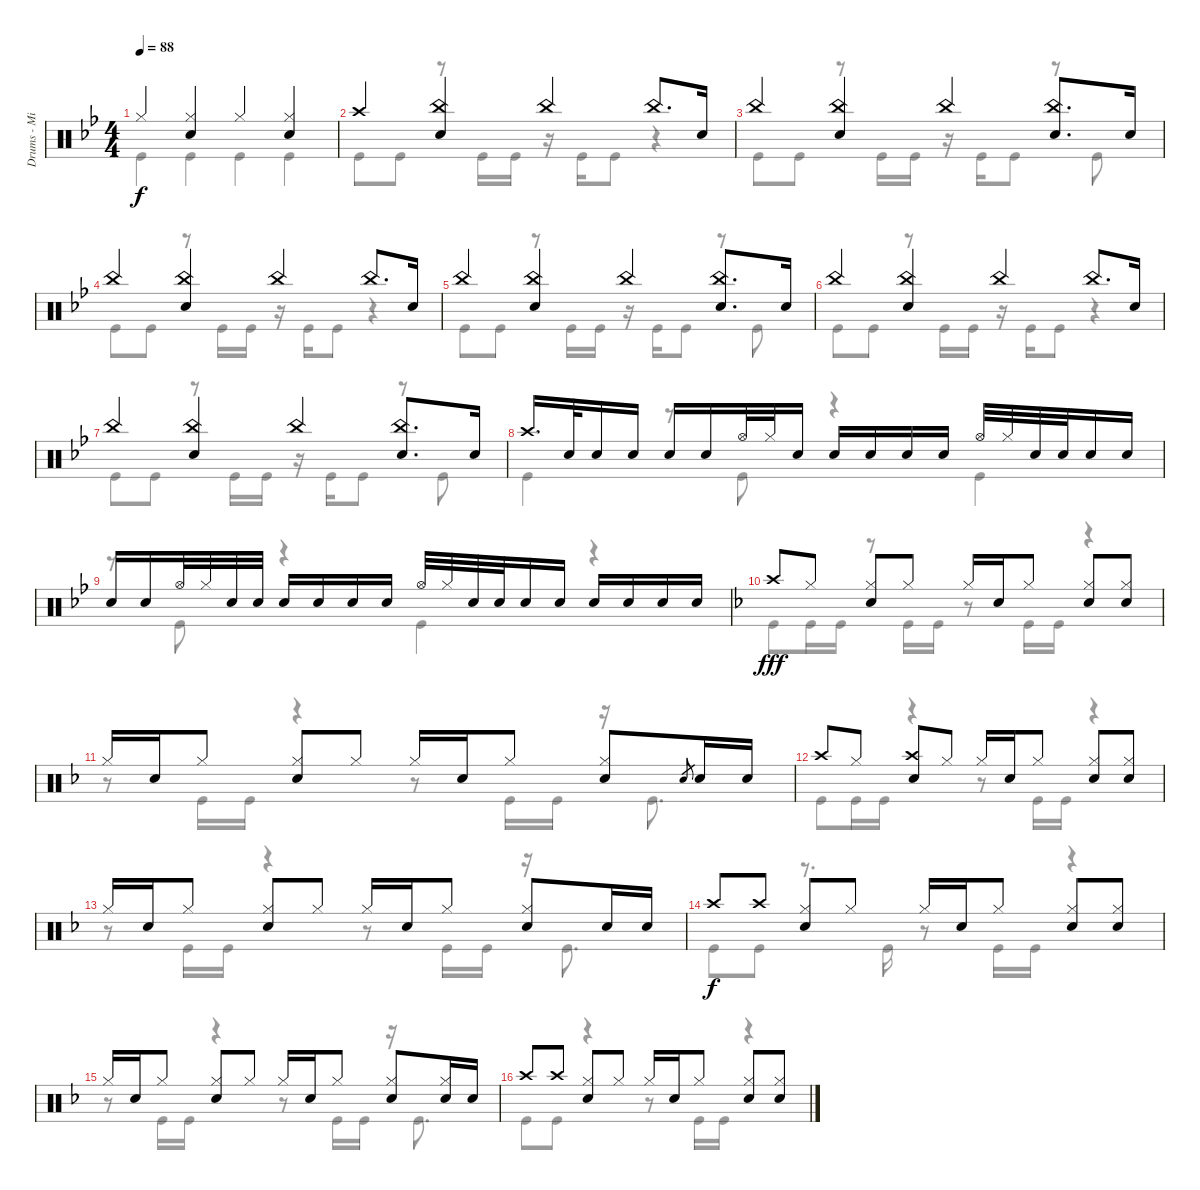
\track ("Drums - Mike Portnoy" "Drums - Mi") {instrument percussion}
\staff {score}
\articulation defaults
\voice
\ts (4 4)
\tempo 88
\clef neutral
\ks bb "Hi-Hat (closed)".4{dy f}
("Hi-Hat (closed)" "Snare (hit) 2").4 "Hi-Hat (closed)".4 ("Hi-Hat (closed)" "Snare (hit) 2").4 |
"Crash high (hit)".4 ("China (hit)" "Snare (hit) 2").4 "China (hit)".4 "China (hit)".8{d} "Snare (hit) 2".16 |
"China (hit)".4 ("China (hit)" "Snare (hit) 2").4 "China (hit)".4 ("China (hit)" "Snare (hit) 2").8{d} "Snare (hit) 2".16 |
"China (hit)".4 ("China (hit)" "Snare (hit) 2").4 "China (hit)".4 "China (hit)".8{d} "Snare (hit) 2".16 |
"China (hit)".4 ("China (hit)" "Snare (hit) 2").4 "China (hit)".4 ("China (hit)" "Snare (hit) 2").8{d} "Snare (hit) 2".16 |
"China (hit)".4 ("China (hit)" "Snare (hit) 2").4 "China (hit)".4 "China (hit)".8{d} "Snare (hit) 2".16 |
"China (hit)".4 ("China (hit)" "Snare (hit) 2").4 "China (hit)".4 ("China (hit)" "Snare (hit) 2").8{d} "Snare (hit) 2".16 |
"Crash high (hit)".16{d} "Snare (hit) 2".32 "Snare (hit) 2".16 "Snare (hit) 2".16 "Snare (hit) 2".16 "Snare (hit) 2".16 "Hi-Hat (open)".32 "Hi-Hat (closed)".32 "Snare (hit) 2".16 "Snare (hit) 2".16 "Snare (hit) 2".16 "Snare (hit) 2".16 "Snare (hit) 2".16 "Hi-Hat (open)".32 "Hi-Hat (closed)".32 "Snare (hit) 2".32 "Snare (hit) 2".32 "Snare (hit) 2".16 "Snare (hit) 2".16 |
"Snare (hit) 2".16 "Snare (hit) 2".16 "Hi-Hat (open)".32 "Hi-Hat (closed)".32 "Snare (hit) 2".32 "Snare (hit) 2".32 "Snare (hit) 2".16 "Snare (hit) 2".16 "Snare (hit) 2".16 "Snare (hit) 2".16 "Hi-Hat (open)".32 "Hi-Hat (closed)".32 "Snare (hit) 2".32 "Snare (hit) 2".32 "Snare (hit) 2".16 "Snare (hit) 2".16 "Snare (hit) 2".16 "Snare (hit) 2".16 "Snare (hit) 2".16 "Snare (hit) 2".16 |
\ks f "Crash high (hit)".8{dy fff} "Hi-Hat (closed)".8
("Hi-Hat (closed)" "Snare (hit) 2").8 "Hi-Hat (closed)".8 "Hi-Hat (closed)".16 "Snare (hit) 2".16 "Hi-Hat (closed)".8 ("Hi-Hat (closed)" "Snare (hit) 2").8 ("Hi-Hat (closed)" "Snare (hit) 2").8 |
"Hi-Hat (closed)".16 "Snare (hit) 2".16 "Hi-Hat (closed)".8 ("Hi-Hat (closed)" "Snare (hit) 2").8 "Hi-Hat (closed)".8 "Hi-Hat (closed)".16 "Snare (hit) 2".16 "Hi-Hat (closed)".8 ("Hi-Hat (closed)" "Snare (hit) 2").8 "Snare (hit) 2".8{gr} "Snare (hit) 2".16 "Snare (hit) 2".16 |
"Crash high (hit)".8 "Hi-Hat (closed)".8 ("Crash high (hit)" "Snare (hit) 2").8 "Hi-Hat (closed)".8 "Hi-Hat (closed)".16 "Snare (hit) 2".16 "Hi-Hat (closed)".8 ("Hi-Hat (closed)" "Snare (hit) 2").8 ("Hi-Hat (closed)" "Snare (hit) 2").8 |
"Hi-Hat (closed)".16 "Snare (hit) 2".16 "Hi-Hat (closed)".8 ("Hi-Hat (closed)" "Snare (hit) 2").8 "Hi-Hat (closed)".8 "Hi-Hat (closed)".16 "Snare (hit) 2".16 "Hi-Hat (closed)".8 ("Hi-Hat (closed)" "Snare (hit) 2").8 "Snare (hit) 2".16 "Snare (hit) 2".16 |
"Crash high (hit)".8{dy f} "Crash high (hit)".8 ("Hi-Hat (closed)" "Snare (hit) 2").8 "Hi-Hat (closed)".8 "Hi-Hat (closed)".16 "Snare (hit) 2".16 "Hi-Hat (closed)".8 ("Hi-Hat (closed)" "Snare (hit) 2").8 ("Hi-Hat (closed)" "Snare (hit) 2").8 |
"Hi-Hat (closed)".16 "Snare (hit) 2".16 "Hi-Hat (closed)".8 ("Hi-Hat (closed)" "Snare (hit) 2").8 "Hi-Hat (closed)".8 "Hi-Hat (closed)".16 "Snare (hit) 2".16 "Hi-Hat (closed)".8 ("Hi-Hat (closed)" "Snare (hit) 2").8 ("Hi-Hat (closed)" "Snare (hit) 2").16 "Snare (hit) 2".16 |
"Crash high (hit)".8 "Crash high (hit)".8 ("Hi-Hat (closed)" "Snare (hit) 2").8 "Hi-Hat (closed)".8 "Hi-Hat (closed)".16 "Snare (hit) 2".16 "Hi-Hat (closed)".8 ("Hi-Hat (closed)" "Snare (hit) 2").8 ("Hi-Hat (closed)" "Snare (hit) 2").8
\voice
\clef neutral
\ottava regular
\simile none
\ks bb "Kick (hit)".4{dy f} "Kick (hit)".4 "Kick (hit)".4 "Kick (hit)".4
|
"Kick (hit)".8 "Kick (hit)".8 r.8 "Kick (hit)".16 "Kick (hit)".16 r.16 "Kick (hit)".16 "Kick (hit)".8 r.4 |
"Kick (hit)".8 "Kick (hit)".8 r.8 "Kick (hit)".16 "Kick (hit)".16 r.16 "Kick (hit)".16 "Kick (hit)".8 r.8 "Kick (hit)".8 |
"Kick (hit)".8 "Kick (hit)".8 r.8 "Kick (hit)".16 "Kick (hit)".16 r.16 "Kick (hit)".16 "Kick (hit)".8 r.4 |
"Kick (hit)".8 "Kick (hit)".8 r.8 "Kick (hit)".16 "Kick (hit)".16 r.16 "Kick (hit)".16 "Kick (hit)".8 r.8 "Kick (hit)".8 |
"Kick (hit)".8 "Kick (hit)".8 r.8 "Kick (hit)".16 "Kick (hit)".16 r.16 "Kick (hit)".16 "Kick (hit)".8 r.4 |
"Kick (hit)".8 "Kick (hit)".8 r.8 "Kick (hit)".16 "Kick (hit)".16 r.16 "Kick (hit)".16 "Kick (hit)".8 r.8 "Kick (hit)".8 |
"Kick (hit)".4 r.8 "Kick (hit)".8 r.4 "Kick (hit)".4 |
r.8 "Kick (hit)".8 r.4 "Kick (hit)".4 r.4 |
\ks f "Kick (hit)".8{dy fff} "Kick (hit)".16 "Kick (hit)".16
r.8 "Kick (hit)".16 "Kick (hit)".16 r.8 "Kick (hit)".16 "Kick (hit)".16 r.4 |
r.8 "Kick (hit)".16 "Kick (hit)".16 r.4 r.8 "Kick (hit)".16 "Kick (hit)".16 r.16 "Kick (hit)".8{d} |
"Kick (hit)".8 "Kick (hit)".16 "Kick (hit)".16 r.4 r.8 "Kick (hit)".16 "Kick (hit)".16 r.4 |
r.8 "Kick (hit)".16 "Kick (hit)".16 r.4 r.8 "Kick (hit)".16 "Kick (hit)".16 r.16 "Kick (hit)".8{d} |
"Kick (hit)".8{dy f} "Kick (hit)".8 r.8{d} "Kick (hit)".16 r.8 "Kick (hit)".16 "Kick (hit)".16 r.4 |
r.8 "Kick (hit)".16 "Kick (hit)".16 r.4 r.8 "Kick (hit)".16 "Kick (hit)".16 r.16 "Kick (hit)".8{d} |
"Kick (hit)".8 "Kick (hit)".8 r.4 r.8 "Kick (hit)".16 "Kick (hit)".16 r.4
